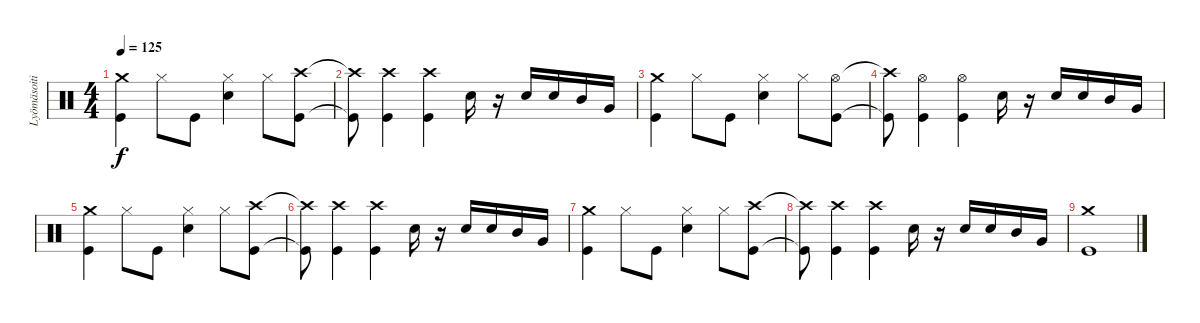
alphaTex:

\track ("Lyömäsoitin" "Lyömäsoiti") {instrument percussion}
\staff {score}
\articulation defaults
\ts (4 4)
\tempo 125
\clef neutral
\ks c
("Crash medium (hit)" "Kick (hit)").4{dy f} "Hi-Hat (closed)".8 "Kick (hit)".8 ("Hi-Hat (closed)" "Snare (hit) 2").4 "Hi-Hat (closed)".8 ("Crash high (hit)" "Kick (hit)").8 |
("Crash high (hit)"{t} "Kick (hit)"{t}).8 ("Crash high (hit)" "Kick (hit)").4 ("Crash high (hit)" "Kick (hit)").4 "Snare (hit) 2".16 r.16 "Snare (hit) 2".16 "Snare (hit) 2".16 "Mid Tom (hit)".16 "Very Low Tom (hit)".16 |
("Crash medium (hit)" "Kick (hit)").4 "Hi-Hat (closed)".8 "Kick (hit)".8 ("Hi-Hat (closed)" "Snare (hit) 2").4 "Hi-Hat (closed)".8 ("Hi-Hat (open)" "Kick (hit)").8 |
("Crash high (hit)"{t} "Kick (hit)"{t}).8 ("Hi-Hat (open)" "Kick (hit)").4 ("Hi-Hat (open)" "Kick (hit)").4 "Snare (hit) 2".16 r.16 "Snare (hit) 2".16 "Snare (hit) 2".16 "Mid Tom (hit)".16 "Very Low Tom (hit)".16 |
("Crash medium (hit)" "Kick (hit)").4 "Hi-Hat (closed)".8 "Kick (hit)".8 ("Hi-Hat (closed)" "Snare (hit) 2").4 "Hi-Hat (closed)".8 ("Crash high (hit)" "Kick (hit)").8 |
("Crash high (hit)"{t} "Kick (hit)"{t}).8 ("Crash high (hit)" "Kick (hit)").4 ("Crash high (hit)" "Kick (hit)").4 "Snare (hit) 2".16 r.16 "Snare (hit) 2".16 "Snare (hit) 2".16 "Mid Tom (hit)".16 "Very Low Tom (hit)".16 |
("Crash medium (hit)" "Kick (hit)").4 "Hi-Hat (closed)".8 "Kick (hit)".8 ("Hi-Hat (closed)" "Snare (hit) 2").4 "Hi-Hat (closed)".8 ("Crash high (hit)" "Kick (hit)").8 |
("Crash high (hit)"{t} "Kick (hit)"{t}).8 ("Crash high (hit)" "Kick (hit)").4 ("Crash high (hit)" "Kick (hit)").4 "Snare (hit) 2".16 r.16 "Snare (hit) 2".16 "Snare (hit) 2".16 "Mid Tom (hit)".16 "Very Low Tom (hit)".16 |
("Crash medium (hit)" "Kick (hit)").1
